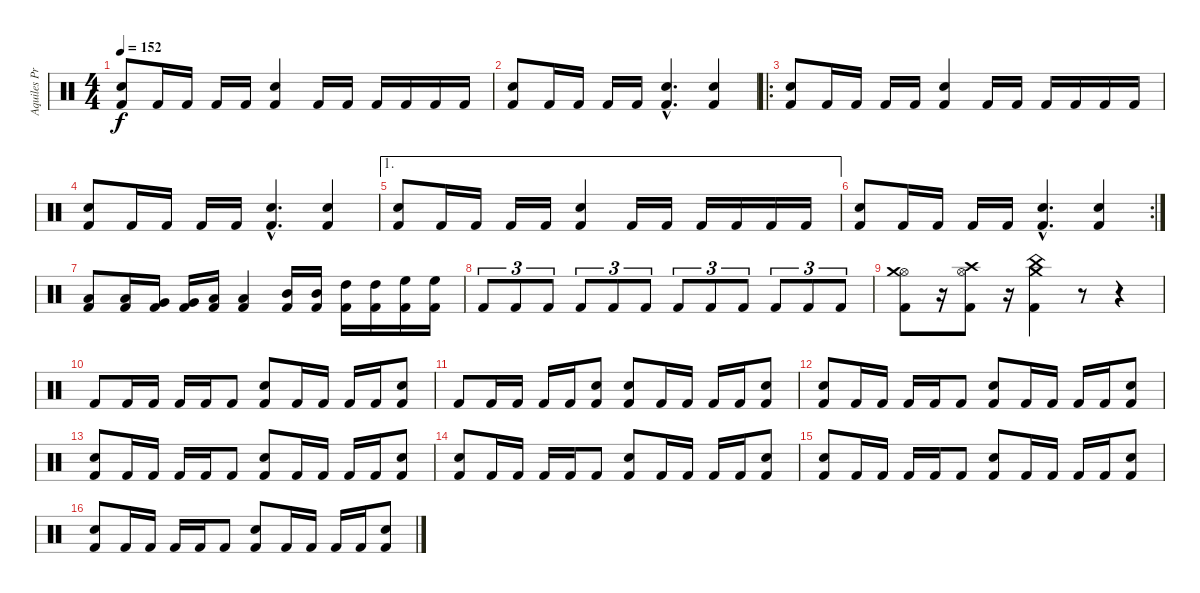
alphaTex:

\track ("Aquiles Priester" "Aquiles Pr") {instrument percussion}
\staff {score}
\articulation defaults
\ts (4 4)
\tempo 152
\clef neutral
\ks c
("Electric Snare (hit)" "Kick (hit) 2").8{dy f} "Kick (hit) 2".16 "Kick (hit) 2".16 "Kick (hit) 2".16 "Kick (hit) 2".16 ("Electric Snare (hit)" "Kick (hit) 2").4 "Kick (hit) 2".16 "Kick (hit) 2".16 "Kick (hit) 2".16 "Kick (hit) 2".16 "Kick (hit) 2".16 "Kick (hit) 2".16 |
("Electric Snare (hit)" "Kick (hit) 2").8 "Kick (hit) 2".16 "Kick (hit) 2".16 "Kick (hit) 2".16 "Kick (hit) 2".16 ("Electric Snare (hit)"{hac} "Kick (hit) 2"{hac}).4{d} ("Electric Snare (hit)" "Kick (hit) 2").4 |
\ro
("Electric Snare (hit)" "Kick (hit) 2").8 "Kick (hit) 2".16 "Kick (hit) 2".16 "Kick (hit) 2".16 "Kick (hit) 2".16 ("Electric Snare (hit)" "Kick (hit) 2").4 "Kick (hit) 2".16 "Kick (hit) 2".16 "Kick (hit) 2".16 "Kick (hit) 2".16 "Kick (hit) 2".16 "Kick (hit) 2".16 |
("Electric Snare (hit)" "Kick (hit) 2").8 "Kick (hit) 2".16 "Kick (hit) 2".16 "Kick (hit) 2".16 "Kick (hit) 2".16 ("Electric Snare (hit)"{hac} "Kick (hit) 2"{hac}).4{d} ("Electric Snare (hit)" "Kick (hit) 2").4 |
\ae 1
("Electric Snare (hit)" "Kick (hit) 2").8 "Kick (hit) 2".16 "Kick (hit) 2".16 "Kick (hit) 2".16 "Kick (hit) 2".16 ("Electric Snare (hit)" "Kick (hit) 2").4 "Kick (hit) 2".16 "Kick (hit) 2".16 "Kick (hit) 2".16 "Kick (hit) 2".16 "Kick (hit) 2".16 "Kick (hit) 2".16 |
\rc 2
("Electric Snare (hit)" "Kick (hit) 2").8 "Kick (hit) 2".16 "Kick (hit) 2".16 "Kick (hit) 2".16 "Kick (hit) 2".16 ("Electric Snare (hit)"{hac} "Kick (hit) 2"{hac}).4{d} ("Electric Snare (hit)" "Kick (hit) 2").4 |
("Low Floor Tom (hit)" "Kick (hit) 2").8 ("Low Floor Tom (hit)" "Kick (hit) 2").16 ("Very Low Tom (hit)" "Kick (hit) 2").16 ("Very Low Tom (hit)" "Kick (hit) 2").16 ("Low Tom (hit)" "Kick (hit) 2").16 ("Low Tom (hit)" "Kick (hit) 2").4 ("Mid Tom (hit)" "Kick (hit) 2").16 ("Mid Tom (hit)" "Kick (hit) 2").16 ("High Tom (hit)" "Kick (hit) 2").16 ("High Tom (hit)" "Kick (hit) 2").16 ("High Floor Tom (hit)" "Kick (hit) 2").16 ("High Floor Tom (hit)" "Kick (hit) 2").16 |
"Kick (hit) 2".8{tu (3 2)} "Kick (hit) 2".8{tu (3 2)} "Kick (hit) 2".8{tu (3 2)} "Kick (hit) 2".8{tu (3 2)} "Kick (hit) 2".8{tu (3 2)} "Kick (hit) 2".8{tu (3 2)} "Kick (hit) 2".8{tu (3 2)} "Kick (hit) 2".8{tu (3 2)} "Kick (hit) 2".8{tu (3 2)} "Kick (hit) 2".8{tu (3 2)} "Kick (hit) 2".8{tu (3 2)} "Kick (hit) 2".8{tu (3 2)} |
("Hi-Hat (open)" "Crash medium (hit)" "Kick (hit) 2").8 r.16 ("Crash high (hit)" "Hi-Hat (open)" "Kick (hit) 2").8 r.16 ("China (hit)" "Crash medium (hit)" "Kick (hit) 2").4 r.8 r.4 |
"Kick (hit) 2".8 "Kick (hit) 2".16 "Kick (hit) 2".16 "Kick (hit) 2".16 "Kick (hit) 2".16 "Kick (hit) 2".8 ("Electric Snare (hit)" "Kick (hit) 2").8 "Kick (hit) 2".16 "Kick (hit) 2".16 "Kick (hit) 2".16 "Kick (hit) 2".16 ("Electric Snare (hit)" "Kick (hit) 2").8 |
"Kick (hit) 2".8 "Kick (hit) 2".16 "Kick (hit) 2".16 "Kick (hit) 2".16 "Kick (hit) 2".16 ("Electric Snare (hit)" "Kick (hit) 2").8 ("Electric Snare (hit)" "Kick (hit) 2").8 "Kick (hit) 2".16 "Kick (hit) 2".16 "Kick (hit) 2".16 "Kick (hit) 2".16 ("Electric Snare (hit)" "Kick (hit) 2").8 |
("Electric Snare (hit)" "Kick (hit) 2").8 "Kick (hit) 2".16 "Kick (hit) 2".16 "Kick (hit) 2".16 "Kick (hit) 2".16 "Kick (hit) 2".8 ("Electric Snare (hit)" "Kick (hit) 2").8 "Kick (hit) 2".16 "Kick (hit) 2".16 "Kick (hit) 2".16 "Kick (hit) 2".16 ("Electric Snare (hit)" "Kick (hit) 2").8 |
("Electric Snare (hit)" "Kick (hit) 2").8 "Kick (hit) 2".16 "Kick (hit) 2".16 "Kick (hit) 2".16 "Kick (hit) 2".16 "Kick (hit) 2".8 ("Electric Snare (hit)" "Kick (hit) 2").8 "Kick (hit) 2".16 "Kick (hit) 2".16 "Kick (hit) 2".16 "Kick (hit) 2".16 ("Electric Snare (hit)" "Kick (hit) 2").8 |
("Electric Snare (hit)" "Kick (hit) 2").8 "Kick (hit) 2".16 "Kick (hit) 2".16 "Kick (hit) 2".16 "Kick (hit) 2".16 "Kick (hit) 2".8 ("Electric Snare (hit)" "Kick (hit) 2").8 "Kick (hit) 2".16 "Kick (hit) 2".16 "Kick (hit) 2".16 "Kick (hit) 2".16 ("Electric Snare (hit)" "Kick (hit) 2").8 |
("Electric Snare (hit)" "Kick (hit) 2").8 "Kick (hit) 2".16 "Kick (hit) 2".16 "Kick (hit) 2".16 "Kick (hit) 2".16 "Kick (hit) 2".8 ("Electric Snare (hit)" "Kick (hit) 2").8 "Kick (hit) 2".16 "Kick (hit) 2".16 "Kick (hit) 2".16 "Kick (hit) 2".16 ("Electric Snare (hit)" "Kick (hit) 2").8 |
("Electric Snare (hit)" "Kick (hit) 2").8 "Kick (hit) 2".16 "Kick (hit) 2".16 "Kick (hit) 2".16 "Kick (hit) 2".16 "Kick (hit) 2".8 ("Electric Snare (hit)" "Kick (hit) 2").8 "Kick (hit) 2".16 "Kick (hit) 2".16 "Kick (hit) 2".16 "Kick (hit) 2".16 ("Electric Snare (hit)" "Kick (hit) 2").8
